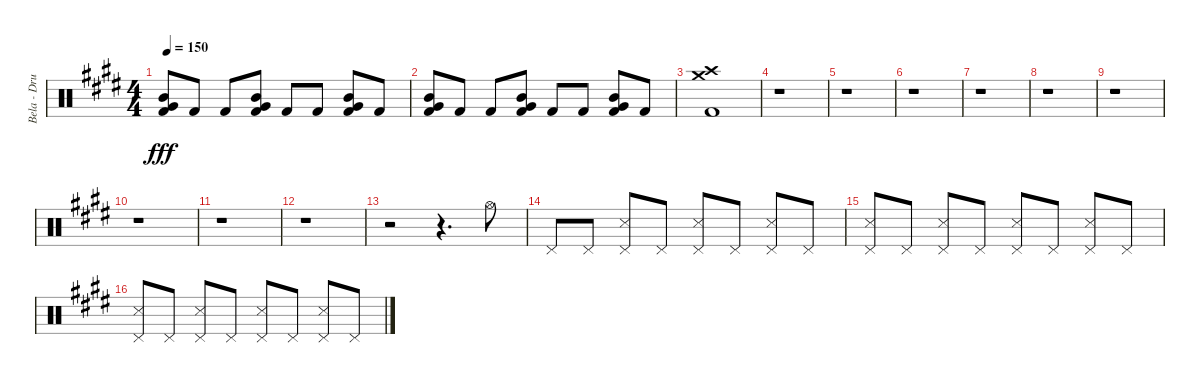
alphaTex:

\track ("Bela - Drums" "Bela - Dru") {instrument percussion}
\staff {score}
\articulation defaults
\ts (4 4)
\tempo 150
\clef neutral
\ks e
("Mid Tom (hit)" "Very Low Tom (hit)" "Kick (hit) 2").8{dy fff} "Kick (hit) 2".8 "Kick (hit) 2".8 ("Mid Tom (hit)" "Very Low Tom (hit)" "Kick (hit) 2").8 "Kick (hit) 2".8 "Kick (hit) 2".8 ("Mid Tom (hit)" "Very Low Tom (hit)" "Kick (hit) 2").8 "Kick (hit) 2".8 |
("Mid Tom (hit)" "Very Low Tom (hit)" "Kick (hit) 2").8 "Kick (hit) 2".8 "Kick (hit) 2".8 ("Mid Tom (hit)" "Very Low Tom (hit)" "Kick (hit) 2").8 "Kick (hit) 2".8 "Kick (hit) 2".8 ("Mid Tom (hit)" "Very Low Tom (hit)" "Kick (hit) 2").8 "Kick (hit) 2".8 |
("Crash high (hit)" "Crash medium (hit)" "Kick (hit) 2").1 |
r.1 |
r.1 |
r.1 |
r.1 |
r.1 |
r.1 |
r.1 |
r.1 |
r.1 |
r.2 r.4{d} "Hi-Hat (open)".8 |
"Pedal Hi-Hat (hit)".8 "Pedal Hi-Hat (hit)".8 ("Snare (side stick) 3" "Pedal Hi-Hat (hit)").8 "Pedal Hi-Hat (hit)".8 ("Snare (side stick) 3" "Pedal Hi-Hat (hit)").8 "Pedal Hi-Hat (hit)".8 ("Snare (side stick) 3" "Pedal Hi-Hat (hit)").8 "Pedal Hi-Hat (hit)".8 |
("Snare (side stick) 3" "Pedal Hi-Hat (hit)").8 "Pedal Hi-Hat (hit)".8 ("Snare (side stick) 3" "Pedal Hi-Hat (hit)").8 "Pedal Hi-Hat (hit)".8 ("Snare (side stick) 3" "Pedal Hi-Hat (hit)").8 "Pedal Hi-Hat (hit)".8 ("Snare (side stick) 3" "Pedal Hi-Hat (hit)").8 "Pedal Hi-Hat (hit)".8 |
("Snare (side stick) 3" "Pedal Hi-Hat (hit)").8 "Pedal Hi-Hat (hit)".8 ("Snare (side stick) 3" "Pedal Hi-Hat (hit)").8 "Pedal Hi-Hat (hit)".8 ("Snare (side stick) 3" "Pedal Hi-Hat (hit)").8 "Pedal Hi-Hat (hit)".8 ("Snare (side stick) 3" "Pedal Hi-Hat (hit)").8 "Pedal Hi-Hat (hit)".8
